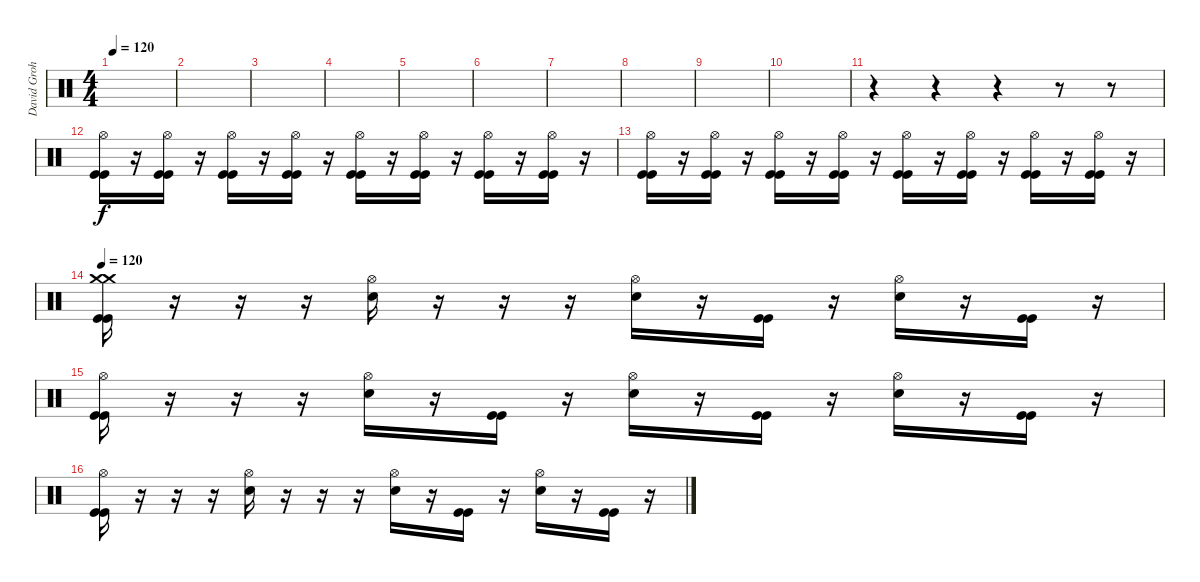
\track ("David Grohl/Alfredo Ortiz" "David Groh") {instrument percussion}
\staff {score}
\articulation defaults
\ts (4 4)
\tempo 120
\clef neutral
\ks c
|
|
|
|
|
|
|
|
|
|
r.4 r.4 r.4 r.8{volume 0} r.8{volume 0} |
("Hi-Hat (open)" "Kick (hit)" "Kick (hit)").16{volume 16} r.16 ("Hi-Hat (open)" "Kick (hit)" "Kick (hit)").16 r.16 ("Hi-Hat (open)" "Kick (hit)" "Kick (hit)").16 r.16 ("Hi-Hat (open)" "Kick (hit)" "Kick (hit)").16 r.16 ("Hi-Hat (open)" "Kick (hit)" "Kick (hit)").16 r.16 ("Hi-Hat (open)" "Kick (hit)" "Kick (hit)").16 r.16 ("Hi-Hat (open)" "Kick (hit)" "Kick (hit)").16 r.16 ("Hi-Hat (open)" "Kick (hit)" "Kick (hit)").16 r.16 |
("Hi-Hat (open)" "Kick (hit)" "Kick (hit)").16 r.16 ("Hi-Hat (open)" "Kick (hit)" "Kick (hit)").16 r.16 ("Hi-Hat (open)" "Kick (hit)" "Kick (hit)").16 r.16 ("Hi-Hat (open)" "Kick (hit)" "Kick (hit)").16 r.16 ("Hi-Hat (open)" "Kick (hit)" "Kick (hit)").16 r.16 ("Hi-Hat (open)" "Kick (hit)" "Kick (hit)").16 r.16 ("Hi-Hat (open)" "Kick (hit)" "Kick (hit)").16 r.16 ("Hi-Hat (open)" "Kick (hit)" "Kick (hit)").16 r.16 |
\tempo 120
("Crash medium (hit)" "Crash medium (hit)" "Kick (hit)" "Kick (hit)").16 r.16 r.16 r.16 ("Hi-Hat (open)" "Snare (hit) 2").16 r.16 r.16 r.16 ("Hi-Hat (open)" "Snare (hit) 2").16 r.16 ("Kick (hit)" "Kick (hit)").16 r.16 ("Hi-Hat (open)" "Snare (hit) 2").16 r.16 ("Kick (hit)" "Kick (hit)").16 r.16 |
("Hi-Hat (open)" "Kick (hit)" "Kick (hit)").16 r.16 r.16 r.16 ("Hi-Hat (open)" "Snare (hit) 2").16 r.16 ("Kick (hit)" "Kick (hit)").16 r.16 ("Hi-Hat (open)" "Snare (hit) 2").16 r.16 ("Kick (hit)" "Kick (hit)").16 r.16 ("Hi-Hat (open)" "Snare (hit) 2").16 r.16 ("Kick (hit)" "Kick (hit)").16 r.16 |
("Hi-Hat (open)" "Kick (hit)" "Kick (hit)").16 r.16 r.16 r.16 ("Hi-Hat (open)" "Snare (hit) 2").16 r.16 r.16 r.16 ("Hi-Hat (open)" "Snare (hit) 2").16 r.16 ("Kick (hit)" "Kick (hit)").16 r.16 ("Hi-Hat (open)" "Snare (hit) 2").16 r.16 ("Kick (hit)" "Kick (hit)").16 r.16
